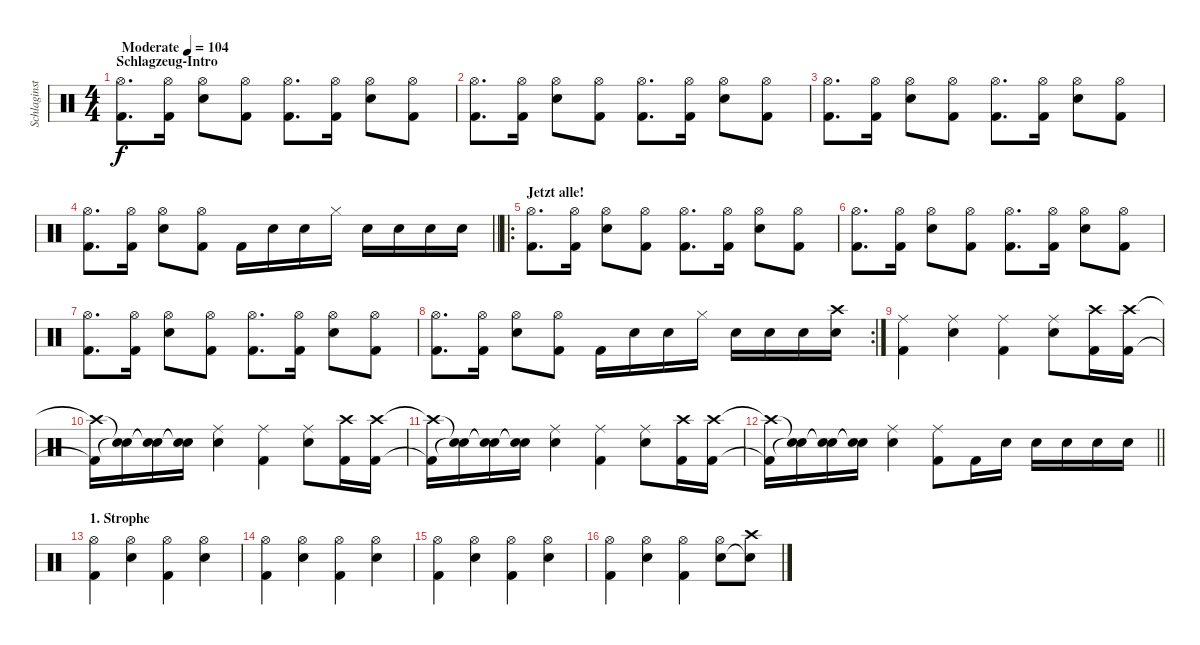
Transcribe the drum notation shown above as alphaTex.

\track ("Schlaginstrumente - Auswahl" "Schlaginst") {instrument percussion}
\staff {score}
\articulation defaults
\ts (4 4)
\section ("" "Schlagzeug-Intro")
\tempo (104 "Moderate")
\clef neutral
\ks c
("Hi-Hat (open)" "Kick (hit) 2").8{d dy f} ("Hi-Hat (open)" "Kick (hit) 2").16 ("Hi-Hat (open)" "Electric Snare (hit)").8 ("Hi-Hat (open)" "Kick (hit) 2").8 ("Hi-Hat (open)" "Kick (hit) 2").8{d} ("Hi-Hat (open)" "Kick (hit) 2").16 ("Hi-Hat (open)" "Electric Snare (hit)").8 ("Hi-Hat (open)" "Kick (hit) 2").8 |
("Hi-Hat (open)" "Kick (hit) 2").8{d} ("Hi-Hat (open)" "Kick (hit) 2").16 ("Hi-Hat (open)" "Electric Snare (hit)").8 ("Hi-Hat (open)" "Kick (hit) 2").8 ("Hi-Hat (open)" "Kick (hit) 2").8{d} ("Hi-Hat (open)" "Kick (hit) 2").16 ("Hi-Hat (open)" "Electric Snare (hit)").8 ("Hi-Hat (open)" "Kick (hit) 2").8 |
("Hi-Hat (open)" "Kick (hit) 2").8{d} ("Hi-Hat (open)" "Kick (hit) 2").16 ("Hi-Hat (open)" "Electric Snare (hit)").8 ("Hi-Hat (open)" "Kick (hit) 2").8 ("Hi-Hat (open)" "Kick (hit) 2").8{d} ("Hi-Hat (open)" "Kick (hit) 2").16 ("Hi-Hat (open)" "Electric Snare (hit)").8 ("Hi-Hat (open)" "Kick (hit) 2").8 |
\barLineRight lightlight
("Hi-Hat (open)" "Kick (hit) 2").8{d} ("Hi-Hat (open)" "Kick (hit) 2").16 ("Hi-Hat (open)" "Electric Snare (hit)").8 ("Hi-Hat (open)" "Kick (hit) 2").8 "Kick (hit) 2".16 "Electric Snare (hit)".16 "Electric Snare (hit)".16 "Hi-Hat (closed)".16 "Electric Snare (hit)".16 "Electric Snare (hit)".16 "Electric Snare (hit)".16 "Electric Snare (hit)".16 |
\ro
\section ("" "Jetzt alle!")
("Hi-Hat (open)" "Kick (hit) 2").8{d} ("Hi-Hat (open)" "Kick (hit) 2").16 ("Hi-Hat (open)" "Electric Snare (hit)").8 ("Hi-Hat (open)" "Kick (hit) 2").8 ("Hi-Hat (open)" "Kick (hit) 2").8{d} ("Hi-Hat (open)" "Kick (hit) 2").16 ("Hi-Hat (open)" "Electric Snare (hit)").8 ("Hi-Hat (open)" "Kick (hit) 2").8 |
("Hi-Hat (open)" "Kick (hit) 2").8{d} ("Hi-Hat (open)" "Kick (hit) 2").16 ("Hi-Hat (open)" "Electric Snare (hit)").8 ("Hi-Hat (open)" "Kick (hit) 2").8 ("Hi-Hat (open)" "Kick (hit) 2").8{d} ("Hi-Hat (open)" "Kick (hit) 2").16 ("Hi-Hat (open)" "Electric Snare (hit)").8 ("Hi-Hat (open)" "Kick (hit) 2").8 |
("Hi-Hat (open)" "Kick (hit) 2").8{d} ("Hi-Hat (open)" "Kick (hit) 2").16 ("Hi-Hat (open)" "Electric Snare (hit)").8 ("Hi-Hat (open)" "Kick (hit) 2").8 ("Hi-Hat (open)" "Kick (hit) 2").8{d} ("Hi-Hat (open)" "Kick (hit) 2").16 ("Hi-Hat (open)" "Electric Snare (hit)").8 ("Hi-Hat (open)" "Kick (hit) 2").8 |
\rc 2
("Hi-Hat (open)" "Kick (hit) 2").8{d} ("Hi-Hat (open)" "Kick (hit) 2").16 ("Hi-Hat (open)" "Electric Snare (hit)").8 ("Hi-Hat (open)" "Kick (hit) 2").8 "Kick (hit) 2".16 "Electric Snare (hit)".16 "Electric Snare (hit)".16 "Hi-Hat (closed)".16 "Electric Snare (hit)".16 "Electric Snare (hit)".16 "Electric Snare (hit)".16 ("Crash high (hit)" "Electric Snare (hit)").16 |
("Ride (middle)" "Kick (hit) 2").4 ("Ride (middle)" "Electric Snare (hit)").4 ("Ride (middle)" "Kick (hit) 2").4 ("Ride (middle)" "Electric Snare (hit)").8 ("Crash high (hit)" "Kick (hit) 2").16 ("Crash high (hit)" "Kick (hit) 2").16 |
("Crash high (hit)"{t} "Kick (hit) 2"{t}).16 ("Snare (hit)"{t} "Snare (hit)"{t}).16 ("Snare (hit)"{t} "Snare (hit)"{t}).16 ("Snare (hit)"{t} "Snare (hit)"{t}).16 ("Ride (middle)" "Electric Snare (hit)").4 ("Ride (middle)" "Kick (hit) 2").4 ("Ride (middle)" "Electric Snare (hit)").8 ("Crash high (hit)" "Kick (hit) 2").16 ("Crash high (hit)" "Kick (hit) 2").16 |
("Crash high (hit)"{t} "Kick (hit) 2"{t}).16 ("Snare (hit)"{t} "Snare (hit)"{t}).16 ("Snare (hit)"{t} "Snare (hit)"{t}).16 ("Snare (hit)"{t} "Snare (hit)"{t}).16 ("Ride (middle)" "Electric Snare (hit)").4 ("Ride (middle)" "Kick (hit) 2").4 ("Ride (middle)" "Electric Snare (hit)").8 ("Crash high (hit)" "Kick (hit) 2").16 ("Crash high (hit)" "Kick (hit) 2").16 |
\barLineRight lightlight
("Crash high (hit)"{t} "Kick (hit) 2"{t}).16 ("Snare (hit)"{t} "Snare (hit)"{t}).16 ("Snare (hit)"{t} "Snare (hit)"{t}).16 ("Snare (hit)"{t} "Snare (hit)"{t}).16 ("Ride (middle)" "Electric Snare (hit)").4 ("Ride (middle)" "Kick (hit) 2").8 "Kick (hit) 2".16 "Electric Snare (hit)".16 "Electric Snare (hit)".16 "Electric Snare (hit)".16 "Electric Snare (hit)".16 "Electric Snare (hit)".16 |
\section ("" "1. Strophe")
("Hi-Hat (open)" "Kick (hit) 2").4 ("Hi-Hat (open)" "Electric Snare (hit)").4 ("Hi-Hat (open)" "Kick (hit) 2").4 ("Hi-Hat (open)" "Electric Snare (hit)").4 |
("Hi-Hat (open)" "Kick (hit) 2").4 ("Hi-Hat (open)" "Electric Snare (hit)").4 ("Hi-Hat (open)" "Kick (hit) 2").4 ("Hi-Hat (open)" "Electric Snare (hit)").4 |
("Hi-Hat (open)" "Kick (hit) 2").4 ("Hi-Hat (open)" "Electric Snare (hit)").4 ("Hi-Hat (open)" "Kick (hit) 2").4 ("Hi-Hat (open)" "Electric Snare (hit)").4 |
("Hi-Hat (open)" "Kick (hit) 2").4 ("Hi-Hat (open)" "Electric Snare (hit)").4 ("Hi-Hat (open)" "Kick (hit) 2").4 ("Hi-Hat (open)" "Electric Snare (hit)").8 ("Crash high (hit)" "Electric Snare (hit)"{t}).8
